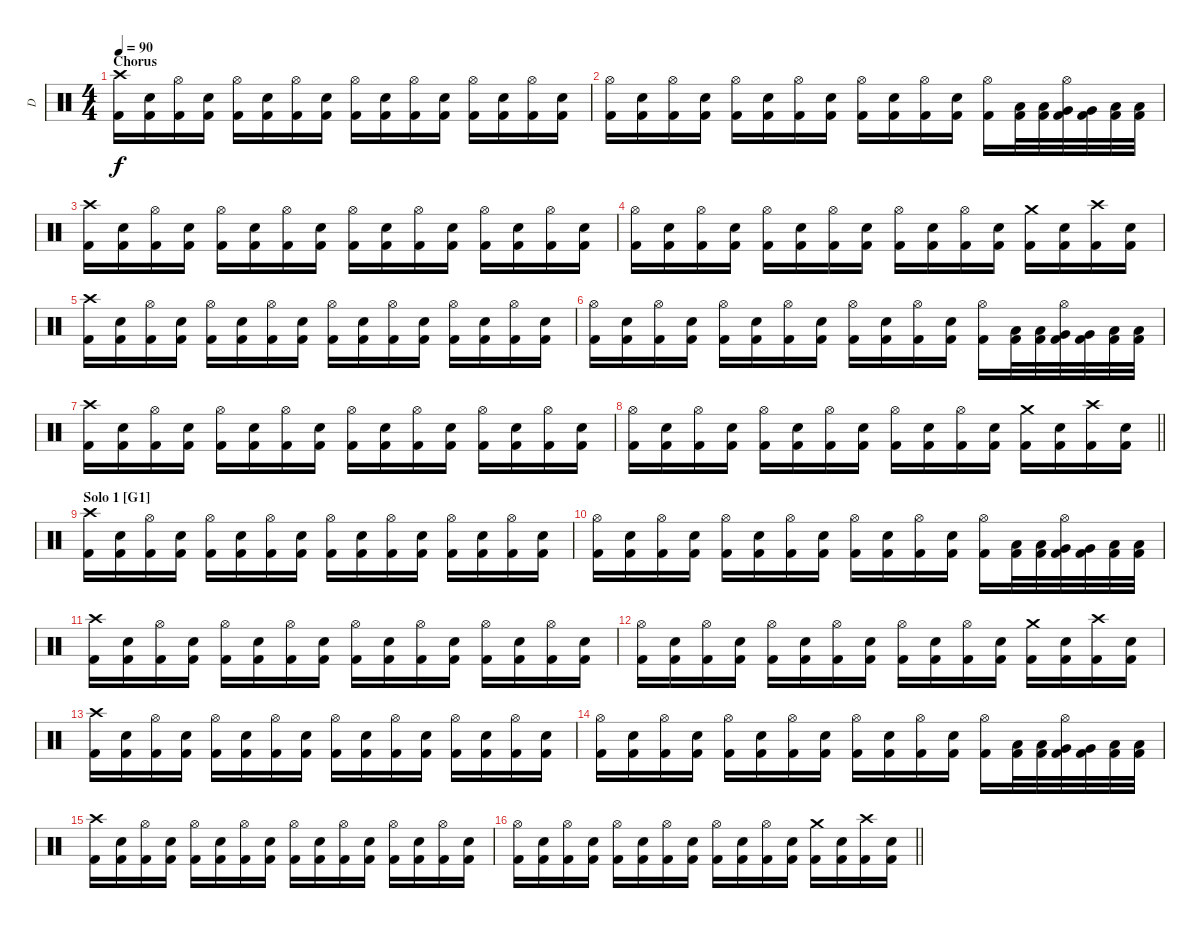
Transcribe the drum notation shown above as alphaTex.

\track ("D" "D") {instrument percussion}
\staff {score}
\articulation defaults
\ts (4 4)
\section ("" "Chorus")
\tempo 90
\clef neutral
\ks c
("Crash high (hit)" "Kick (hit) 2").16{dy f} ("Electric Snare (hit)" "Kick (hit) 2").16 ("Hi-Hat (open)" "Kick (hit) 2").16 ("Electric Snare (hit)" "Kick (hit) 2").16 ("Hi-Hat (open)" "Kick (hit) 2").16 ("Electric Snare (hit)" "Kick (hit) 2").16 ("Hi-Hat (open)" "Kick (hit) 2").16 ("Electric Snare (hit)" "Kick (hit) 2").16 ("Hi-Hat (open)" "Kick (hit) 2").16 ("Electric Snare (hit)" "Kick (hit) 2").16 ("Hi-Hat (open)" "Kick (hit) 2").16 ("Electric Snare (hit)" "Kick (hit) 2").16 ("Hi-Hat (open)" "Kick (hit) 2").16 ("Electric Snare (hit)" "Kick (hit) 2").16 ("Hi-Hat (open)" "Kick (hit) 2").16 ("Electric Snare (hit)" "Kick (hit) 2").16 |
("Hi-Hat (open)" "Kick (hit) 2").16 ("Electric Snare (hit)" "Kick (hit) 2").16 ("Hi-Hat (open)" "Kick (hit) 2").16 ("Electric Snare (hit)" "Kick (hit) 2").16 ("Hi-Hat (open)" "Kick (hit) 2").16 ("Electric Snare (hit)" "Kick (hit) 2").16 ("Hi-Hat (open)" "Kick (hit) 2").16 ("Electric Snare (hit)" "Kick (hit) 2").16 ("Hi-Hat (open)" "Kick (hit) 2").16 ("Electric Snare (hit)" "Kick (hit) 2").16 ("Hi-Hat (open)" "Kick (hit) 2").16 ("Electric Snare (hit)" "Kick (hit) 2").16 ("Hi-Hat (open)" "Kick (hit) 2").16 ("Low Tom (hit)" "Kick (hit) 2").32 ("Low Tom (hit)" "Kick (hit) 2").32 ("Hi-Hat (open)" "Very Low Tom (hit)" "Kick (hit) 2").32 ("Very Low Tom (hit)" "Kick (hit) 2").32 ("Low Floor Tom (hit)" "Kick (hit) 2").32 ("Low Floor Tom (hit)" "Kick (hit) 2").32 |
("Crash high (hit)" "Kick (hit) 2").16 ("Electric Snare (hit)" "Kick (hit) 2").16 ("Hi-Hat (open)" "Kick (hit) 2").16 ("Electric Snare (hit)" "Kick (hit) 2").16 ("Hi-Hat (open)" "Kick (hit) 2").16 ("Electric Snare (hit)" "Kick (hit) 2").16 ("Hi-Hat (open)" "Kick (hit) 2").16 ("Electric Snare (hit)" "Kick (hit) 2").16 ("Hi-Hat (open)" "Kick (hit) 2").16 ("Electric Snare (hit)" "Kick (hit) 2").16 ("Hi-Hat (open)" "Kick (hit) 2").16 ("Electric Snare (hit)" "Kick (hit) 2").16 ("Hi-Hat (open)" "Kick (hit) 2").16 ("Electric Snare (hit)" "Kick (hit) 2").16 ("Hi-Hat (open)" "Kick (hit) 2").16 ("Electric Snare (hit)" "Kick (hit) 2").16 |
("Hi-Hat (open)" "Kick (hit) 2").16 ("Electric Snare (hit)" "Kick (hit) 2").16 ("Hi-Hat (open)" "Kick (hit) 2").16 ("Electric Snare (hit)" "Kick (hit) 2").16 ("Hi-Hat (open)" "Kick (hit) 2").16 ("Electric Snare (hit)" "Kick (hit) 2").16 ("Hi-Hat (open)" "Kick (hit) 2").16 ("Electric Snare (hit)" "Kick (hit) 2").16 ("Hi-Hat (open)" "Kick (hit) 2").16 ("Electric Snare (hit)" "Kick (hit) 2").16 ("Hi-Hat (open)" "Kick (hit) 2").16 ("Electric Snare (hit)" "Kick (hit) 2").16 ("Crash medium (hit)" "Kick (hit) 2").16 ("Electric Snare (hit)" "Kick (hit) 2").16 ("Crash high (hit)" "Kick (hit) 2").16 ("Electric Snare (hit)" "Kick (hit) 2").16 |
("Crash high (hit)" "Kick (hit) 2").16 ("Electric Snare (hit)" "Kick (hit) 2").16 ("Hi-Hat (open)" "Kick (hit) 2").16 ("Electric Snare (hit)" "Kick (hit) 2").16 ("Hi-Hat (open)" "Kick (hit) 2").16 ("Electric Snare (hit)" "Kick (hit) 2").16 ("Hi-Hat (open)" "Kick (hit) 2").16 ("Electric Snare (hit)" "Kick (hit) 2").16 ("Hi-Hat (open)" "Kick (hit) 2").16 ("Electric Snare (hit)" "Kick (hit) 2").16 ("Hi-Hat (open)" "Kick (hit) 2").16 ("Electric Snare (hit)" "Kick (hit) 2").16 ("Hi-Hat (open)" "Kick (hit) 2").16 ("Electric Snare (hit)" "Kick (hit) 2").16 ("Hi-Hat (open)" "Kick (hit) 2").16 ("Electric Snare (hit)" "Kick (hit) 2").16 |
("Hi-Hat (open)" "Kick (hit) 2").16 ("Electric Snare (hit)" "Kick (hit) 2").16 ("Hi-Hat (open)" "Kick (hit) 2").16 ("Electric Snare (hit)" "Kick (hit) 2").16 ("Hi-Hat (open)" "Kick (hit) 2").16 ("Electric Snare (hit)" "Kick (hit) 2").16 ("Hi-Hat (open)" "Kick (hit) 2").16 ("Electric Snare (hit)" "Kick (hit) 2").16 ("Hi-Hat (open)" "Kick (hit) 2").16 ("Electric Snare (hit)" "Kick (hit) 2").16 ("Hi-Hat (open)" "Kick (hit) 2").16 ("Electric Snare (hit)" "Kick (hit) 2").16 ("Hi-Hat (open)" "Kick (hit) 2").16 ("Low Tom (hit)" "Kick (hit) 2").32 ("Low Tom (hit)" "Kick (hit) 2").32 ("Hi-Hat (open)" "Very Low Tom (hit)" "Kick (hit) 2").32 ("Very Low Tom (hit)" "Kick (hit) 2").32 ("Low Floor Tom (hit)" "Kick (hit) 2").32 ("Low Floor Tom (hit)" "Kick (hit) 2").32 |
("Crash high (hit)" "Kick (hit) 2").16 ("Electric Snare (hit)" "Kick (hit) 2").16 ("Hi-Hat (open)" "Kick (hit) 2").16 ("Electric Snare (hit)" "Kick (hit) 2").16 ("Hi-Hat (open)" "Kick (hit) 2").16 ("Electric Snare (hit)" "Kick (hit) 2").16 ("Hi-Hat (open)" "Kick (hit) 2").16 ("Electric Snare (hit)" "Kick (hit) 2").16 ("Hi-Hat (open)" "Kick (hit) 2").16 ("Electric Snare (hit)" "Kick (hit) 2").16 ("Hi-Hat (open)" "Kick (hit) 2").16 ("Electric Snare (hit)" "Kick (hit) 2").16 ("Hi-Hat (open)" "Kick (hit) 2").16 ("Electric Snare (hit)" "Kick (hit) 2").16 ("Hi-Hat (open)" "Kick (hit) 2").16 ("Electric Snare (hit)" "Kick (hit) 2").16 |
\barLineRight lightlight
("Hi-Hat (open)" "Kick (hit) 2").16 ("Electric Snare (hit)" "Kick (hit) 2").16 ("Hi-Hat (open)" "Kick (hit) 2").16 ("Electric Snare (hit)" "Kick (hit) 2").16 ("Hi-Hat (open)" "Kick (hit) 2").16 ("Electric Snare (hit)" "Kick (hit) 2").16 ("Hi-Hat (open)" "Kick (hit) 2").16 ("Electric Snare (hit)" "Kick (hit) 2").16 ("Hi-Hat (open)" "Kick (hit) 2").16 ("Electric Snare (hit)" "Kick (hit) 2").16 ("Hi-Hat (open)" "Kick (hit) 2").16 ("Electric Snare (hit)" "Kick (hit) 2").16 ("Crash medium (hit)" "Kick (hit) 2").16 ("Electric Snare (hit)" "Kick (hit) 2").16 ("Crash high (hit)" "Kick (hit) 2").16 ("Electric Snare (hit)" "Kick (hit) 2").16 |
\section ("" "Solo 1 [G1]")
("Crash high (hit)" "Kick (hit) 2").16 ("Electric Snare (hit)" "Kick (hit) 2").16 ("Hi-Hat (open)" "Kick (hit) 2").16 ("Electric Snare (hit)" "Kick (hit) 2").16 ("Hi-Hat (open)" "Kick (hit) 2").16 ("Electric Snare (hit)" "Kick (hit) 2").16 ("Hi-Hat (open)" "Kick (hit) 2").16 ("Electric Snare (hit)" "Kick (hit) 2").16 ("Hi-Hat (open)" "Kick (hit) 2").16 ("Electric Snare (hit)" "Kick (hit) 2").16 ("Hi-Hat (open)" "Kick (hit) 2").16 ("Electric Snare (hit)" "Kick (hit) 2").16 ("Hi-Hat (open)" "Kick (hit) 2").16 ("Electric Snare (hit)" "Kick (hit) 2").16 ("Hi-Hat (open)" "Kick (hit) 2").16 ("Electric Snare (hit)" "Kick (hit) 2").16 |
("Hi-Hat (open)" "Kick (hit) 2").16 ("Electric Snare (hit)" "Kick (hit) 2").16 ("Hi-Hat (open)" "Kick (hit) 2").16 ("Electric Snare (hit)" "Kick (hit) 2").16 ("Hi-Hat (open)" "Kick (hit) 2").16 ("Electric Snare (hit)" "Kick (hit) 2").16 ("Hi-Hat (open)" "Kick (hit) 2").16 ("Electric Snare (hit)" "Kick (hit) 2").16 ("Hi-Hat (open)" "Kick (hit) 2").16 ("Electric Snare (hit)" "Kick (hit) 2").16 ("Hi-Hat (open)" "Kick (hit) 2").16 ("Electric Snare (hit)" "Kick (hit) 2").16 ("Hi-Hat (open)" "Kick (hit) 2").16 ("Low Tom (hit)" "Kick (hit) 2").32 ("Low Tom (hit)" "Kick (hit) 2").32 ("Hi-Hat (open)" "Very Low Tom (hit)" "Kick (hit) 2").32 ("Very Low Tom (hit)" "Kick (hit) 2").32 ("Low Floor Tom (hit)" "Kick (hit) 2").32 ("Low Floor Tom (hit)" "Kick (hit) 2").32 |
("Crash high (hit)" "Kick (hit) 2").16 ("Electric Snare (hit)" "Kick (hit) 2").16 ("Hi-Hat (open)" "Kick (hit) 2").16 ("Electric Snare (hit)" "Kick (hit) 2").16 ("Hi-Hat (open)" "Kick (hit) 2").16 ("Electric Snare (hit)" "Kick (hit) 2").16 ("Hi-Hat (open)" "Kick (hit) 2").16 ("Electric Snare (hit)" "Kick (hit) 2").16 ("Hi-Hat (open)" "Kick (hit) 2").16 ("Electric Snare (hit)" "Kick (hit) 2").16 ("Hi-Hat (open)" "Kick (hit) 2").16 ("Electric Snare (hit)" "Kick (hit) 2").16 ("Hi-Hat (open)" "Kick (hit) 2").16 ("Electric Snare (hit)" "Kick (hit) 2").16 ("Hi-Hat (open)" "Kick (hit) 2").16 ("Electric Snare (hit)" "Kick (hit) 2").16 |
("Hi-Hat (open)" "Kick (hit) 2").16 ("Electric Snare (hit)" "Kick (hit) 2").16 ("Hi-Hat (open)" "Kick (hit) 2").16 ("Electric Snare (hit)" "Kick (hit) 2").16 ("Hi-Hat (open)" "Kick (hit) 2").16 ("Electric Snare (hit)" "Kick (hit) 2").16 ("Hi-Hat (open)" "Kick (hit) 2").16 ("Electric Snare (hit)" "Kick (hit) 2").16 ("Hi-Hat (open)" "Kick (hit) 2").16 ("Electric Snare (hit)" "Kick (hit) 2").16 ("Hi-Hat (open)" "Kick (hit) 2").16 ("Electric Snare (hit)" "Kick (hit) 2").16 ("Crash medium (hit)" "Kick (hit) 2").16 ("Electric Snare (hit)" "Kick (hit) 2").16 ("Crash high (hit)" "Kick (hit) 2").16 ("Electric Snare (hit)" "Kick (hit) 2").16 |
("Crash high (hit)" "Kick (hit) 2").16 ("Electric Snare (hit)" "Kick (hit) 2").16 ("Hi-Hat (open)" "Kick (hit) 2").16 ("Electric Snare (hit)" "Kick (hit) 2").16 ("Hi-Hat (open)" "Kick (hit) 2").16 ("Electric Snare (hit)" "Kick (hit) 2").16 ("Hi-Hat (open)" "Kick (hit) 2").16 ("Electric Snare (hit)" "Kick (hit) 2").16 ("Hi-Hat (open)" "Kick (hit) 2").16 ("Electric Snare (hit)" "Kick (hit) 2").16 ("Hi-Hat (open)" "Kick (hit) 2").16 ("Electric Snare (hit)" "Kick (hit) 2").16 ("Hi-Hat (open)" "Kick (hit) 2").16 ("Electric Snare (hit)" "Kick (hit) 2").16 ("Hi-Hat (open)" "Kick (hit) 2").16 ("Electric Snare (hit)" "Kick (hit) 2").16 |
("Hi-Hat (open)" "Kick (hit) 2").16 ("Electric Snare (hit)" "Kick (hit) 2").16 ("Hi-Hat (open)" "Kick (hit) 2").16 ("Electric Snare (hit)" "Kick (hit) 2").16 ("Hi-Hat (open)" "Kick (hit) 2").16 ("Electric Snare (hit)" "Kick (hit) 2").16 ("Hi-Hat (open)" "Kick (hit) 2").16 ("Electric Snare (hit)" "Kick (hit) 2").16 ("Hi-Hat (open)" "Kick (hit) 2").16 ("Electric Snare (hit)" "Kick (hit) 2").16 ("Hi-Hat (open)" "Kick (hit) 2").16 ("Electric Snare (hit)" "Kick (hit) 2").16 ("Hi-Hat (open)" "Kick (hit) 2").16 ("Low Tom (hit)" "Kick (hit) 2").32 ("Low Tom (hit)" "Kick (hit) 2").32 ("Hi-Hat (open)" "Very Low Tom (hit)" "Kick (hit) 2").32 ("Very Low Tom (hit)" "Kick (hit) 2").32 ("Low Floor Tom (hit)" "Kick (hit) 2").32 ("Low Floor Tom (hit)" "Kick (hit) 2").32 |
("Crash high (hit)" "Kick (hit) 2").16 ("Electric Snare (hit)" "Kick (hit) 2").16 ("Hi-Hat (open)" "Kick (hit) 2").16 ("Electric Snare (hit)" "Kick (hit) 2").16 ("Hi-Hat (open)" "Kick (hit) 2").16 ("Electric Snare (hit)" "Kick (hit) 2").16 ("Hi-Hat (open)" "Kick (hit) 2").16 ("Electric Snare (hit)" "Kick (hit) 2").16 ("Hi-Hat (open)" "Kick (hit) 2").16 ("Electric Snare (hit)" "Kick (hit) 2").16 ("Hi-Hat (open)" "Kick (hit) 2").16 ("Electric Snare (hit)" "Kick (hit) 2").16 ("Hi-Hat (open)" "Kick (hit) 2").16 ("Electric Snare (hit)" "Kick (hit) 2").16 ("Hi-Hat (open)" "Kick (hit) 2").16 ("Electric Snare (hit)" "Kick (hit) 2").16 |
\barLineRight lightlight
("Hi-Hat (open)" "Kick (hit) 2").16 ("Electric Snare (hit)" "Kick (hit) 2").16 ("Hi-Hat (open)" "Kick (hit) 2").16 ("Electric Snare (hit)" "Kick (hit) 2").16 ("Hi-Hat (open)" "Kick (hit) 2").16 ("Electric Snare (hit)" "Kick (hit) 2").16 ("Hi-Hat (open)" "Kick (hit) 2").16 ("Electric Snare (hit)" "Kick (hit) 2").16 ("Hi-Hat (open)" "Kick (hit) 2").16 ("Electric Snare (hit)" "Kick (hit) 2").16 ("Hi-Hat (open)" "Kick (hit) 2").16 ("Electric Snare (hit)" "Kick (hit) 2").16 ("Crash medium (hit)" "Kick (hit) 2").16 ("Electric Snare (hit)" "Kick (hit) 2").16 ("Crash high (hit)" "Kick (hit) 2").16 ("Electric Snare (hit)" "Kick (hit) 2").16
